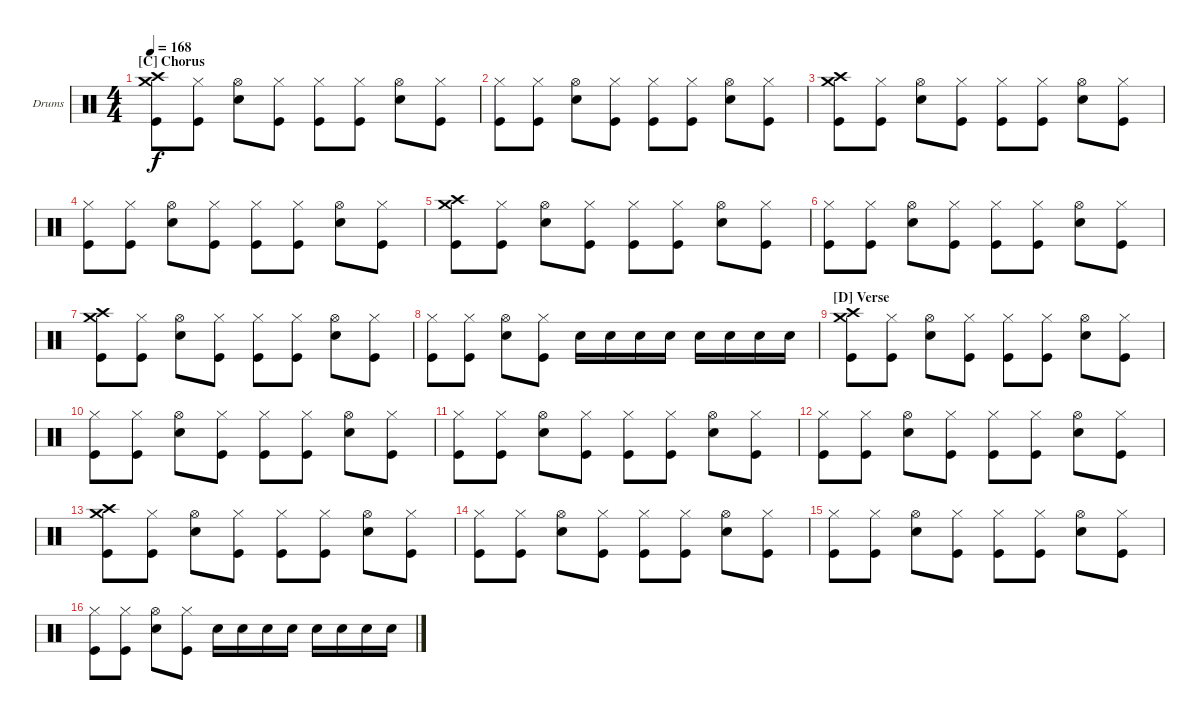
\bracketExtendMode groupsimilarinstruments
\firstSystemTrackNameOrientation horizontal
\otherSystemsTrackNameOrientation horizontal
\track ("Drumkit" "Drums") {instrument percussion}
\staff {score}
\articulation defaults
\ts (4 4)
\section ("C" "Chorus")
\tempo 168
\clef neutral
\scale
0.973518
\ks c
("Crash high (hit)" "Crash medium (hit)" "Kick (hit)").8{dy f} ("Hi-Hat (closed)" "Kick (hit)").8 ("Hi-Hat (open)" "Snare (hit) 2").8 ("Hi-Hat (closed)" "Kick (hit)").8 ("Hi-Hat (closed)" "Kick (hit)").8 ("Hi-Hat (closed)" "Kick (hit)").8 ("Hi-Hat (open)" "Snare (hit) 2").8 ("Hi-Hat (closed)" "Kick (hit)").8 |
\scale
1.05296 ("Hi-Hat (closed)" "Kick (hit)").8 ("Hi-Hat (closed)" "Kick (hit)").8 ("Hi-Hat (open)" "Snare (hit) 2").8 ("Hi-Hat (closed)" "Kick (hit)").8 ("Hi-Hat (closed)" "Kick (hit)").8 ("Hi-Hat (closed)" "Kick (hit)").8 ("Hi-Hat (open)" "Snare (hit) 2").8 ("Hi-Hat (closed)" "Kick (hit)").8 |
\scale
0.973518 ("Crash medium (hit)" "Crash high (hit)" "Kick (hit)").8 ("Hi-Hat (closed)" "Kick (hit)").8 ("Hi-Hat (open)" "Snare (hit) 2").8 ("Hi-Hat (closed)" "Kick (hit)").8 ("Hi-Hat (closed)" "Kick (hit)").8 ("Hi-Hat (closed)" "Kick (hit)").8 ("Hi-Hat (open)" "Snare (hit) 2").8 ("Hi-Hat (closed)" "Kick (hit)").8 |
\scale
0.973518 ("Hi-Hat (closed)" "Kick (hit)").8 ("Hi-Hat (closed)" "Kick (hit)").8 ("Hi-Hat (open)" "Snare (hit) 2").8 ("Hi-Hat (closed)" "Kick (hit)").8 ("Hi-Hat (closed)" "Kick (hit)").8 ("Hi-Hat (closed)" "Kick (hit)").8 ("Hi-Hat (open)" "Snare (hit) 2").8 ("Hi-Hat (closed)" "Kick (hit)").8 |
\scale
1.05296 ("Crash medium (hit)" "Crash high (hit)" "Kick (hit)").8 ("Hi-Hat (closed)" "Kick (hit)").8 ("Hi-Hat (open)" "Snare (hit) 2").8 ("Hi-Hat (closed)" "Kick (hit)").8 ("Hi-Hat (closed)" "Kick (hit)").8 ("Hi-Hat (closed)" "Kick (hit)").8 ("Hi-Hat (open)" "Snare (hit) 2").8 ("Hi-Hat (closed)" "Kick (hit)").8 |
\scale
0.973518 ("Hi-Hat (closed)" "Kick (hit)").8 ("Hi-Hat (closed)" "Kick (hit)").8 ("Hi-Hat (open)" "Snare (hit) 2").8 ("Hi-Hat (closed)" "Kick (hit)").8 ("Hi-Hat (closed)" "Kick (hit)").8 ("Hi-Hat (closed)" "Kick (hit)").8 ("Hi-Hat (open)" "Snare (hit) 2").8 ("Hi-Hat (closed)" "Kick (hit)").8 |
\scale
0.973518 ("Crash high (hit)" "Crash medium (hit)" "Kick (hit)").8 ("Hi-Hat (closed)" "Kick (hit)").8 ("Hi-Hat (open)" "Snare (hit) 2").8 ("Hi-Hat (closed)" "Kick (hit)").8 ("Hi-Hat (closed)" "Kick (hit)").8 ("Hi-Hat (closed)" "Kick (hit)").8 ("Hi-Hat (open)" "Snare (hit) 2").8 ("Hi-Hat (closed)" "Kick (hit)").8 |
\scale
1.05296 ("Hi-Hat (closed)" "Kick (hit)").8 ("Hi-Hat (closed)" "Kick (hit)").8 ("Hi-Hat (open)" "Snare (hit) 2").8 ("Hi-Hat (closed)" "Kick (hit)").8 "Snare (hit) 2".16 "Snare (hit) 2".16 "Snare (hit) 2".16 "Snare (hit) 2".16 "Snare (hit) 2".16 "Snare (hit) 2".16 "Snare (hit) 2".16 "Snare (hit) 2".16 |
\section ("D" "Verse")
\scale
0.973518 ("Crash medium (hit)" "Crash high (hit)" "Kick (hit)").8 ("Hi-Hat (closed)" "Kick (hit)").8 ("Hi-Hat (open)" "Snare (hit) 2").8 ("Hi-Hat (closed)" "Kick (hit)").8 ("Hi-Hat (closed)" "Kick (hit)").8 ("Hi-Hat (closed)" "Kick (hit)").8 ("Hi-Hat (open)" "Snare (hit) 2").8 ("Hi-Hat (closed)" "Kick (hit)").8 |
\scale
0.973518 ("Hi-Hat (closed)" "Kick (hit)").8 ("Hi-Hat (closed)" "Kick (hit)").8 ("Hi-Hat (open)" "Snare (hit) 2").8 ("Hi-Hat (closed)" "Kick (hit)").8 ("Hi-Hat (closed)" "Kick (hit)").8 ("Hi-Hat (closed)" "Kick (hit)").8 ("Hi-Hat (open)" "Snare (hit) 2").8 ("Hi-Hat (closed)" "Kick (hit)").8 |
\scale
1.05296 ("Hi-Hat (closed)" "Kick (hit)").8 ("Hi-Hat (closed)" "Kick (hit)").8 ("Hi-Hat (open)" "Snare (hit) 2").8 ("Hi-Hat (closed)" "Kick (hit)").8 ("Hi-Hat (closed)" "Kick (hit)").8 ("Hi-Hat (closed)" "Kick (hit)").8 ("Hi-Hat (open)" "Snare (hit) 2").8 ("Hi-Hat (closed)" "Kick (hit)").8 |
\scale
0.973518 ("Hi-Hat (closed)" "Kick (hit)").8 ("Hi-Hat (closed)" "Kick (hit)").8 ("Hi-Hat (open)" "Snare (hit) 2").8 ("Hi-Hat (closed)" "Kick (hit)").8 ("Hi-Hat (closed)" "Kick (hit)").8 ("Hi-Hat (closed)" "Kick (hit)").8 ("Hi-Hat (open)" "Snare (hit) 2").8 ("Hi-Hat (closed)" "Kick (hit)").8 |
\scale
0.973518 ("Crash medium (hit)" "Crash high (hit)" "Kick (hit)").8 ("Hi-Hat (closed)" "Kick (hit)").8 ("Hi-Hat (open)" "Snare (hit) 2").8 ("Hi-Hat (closed)" "Kick (hit)").8 ("Hi-Hat (closed)" "Kick (hit)").8 ("Hi-Hat (closed)" "Kick (hit)").8 ("Hi-Hat (open)" "Snare (hit) 2").8 ("Hi-Hat (closed)" "Kick (hit)").8 |
\scale
1.05296 ("Hi-Hat (closed)" "Kick (hit)").8 ("Hi-Hat (closed)" "Kick (hit)").8 ("Hi-Hat (open)" "Snare (hit) 2").8 ("Hi-Hat (closed)" "Kick (hit)").8 ("Hi-Hat (closed)" "Kick (hit)").8 ("Hi-Hat (closed)" "Kick (hit)").8 ("Hi-Hat (open)" "Snare (hit) 2").8 ("Hi-Hat (closed)" "Kick (hit)").8 |
\scale
0.973518 ("Hi-Hat (closed)" "Kick (hit)").8 ("Hi-Hat (closed)" "Kick (hit)").8 ("Hi-Hat (open)" "Snare (hit) 2").8 ("Hi-Hat (closed)" "Kick (hit)").8 ("Hi-Hat (closed)" "Kick (hit)").8 ("Hi-Hat (closed)" "Kick (hit)").8 ("Hi-Hat (open)" "Snare (hit) 2").8 ("Hi-Hat (closed)" "Kick (hit)").8 |
\scale
0.973518 ("Hi-Hat (closed)" "Kick (hit)").8 ("Hi-Hat (closed)" "Kick (hit)").8 ("Hi-Hat (open)" "Snare (hit) 2").8 ("Hi-Hat (closed)" "Kick (hit)").8 "Snare (hit) 2".16 "Snare (hit) 2".16 "Snare (hit) 2".16 "Snare (hit) 2".16 "Snare (hit) 2".16 "Snare (hit) 2".16 "Snare (hit) 2".16 "Snare (hit) 2".16
